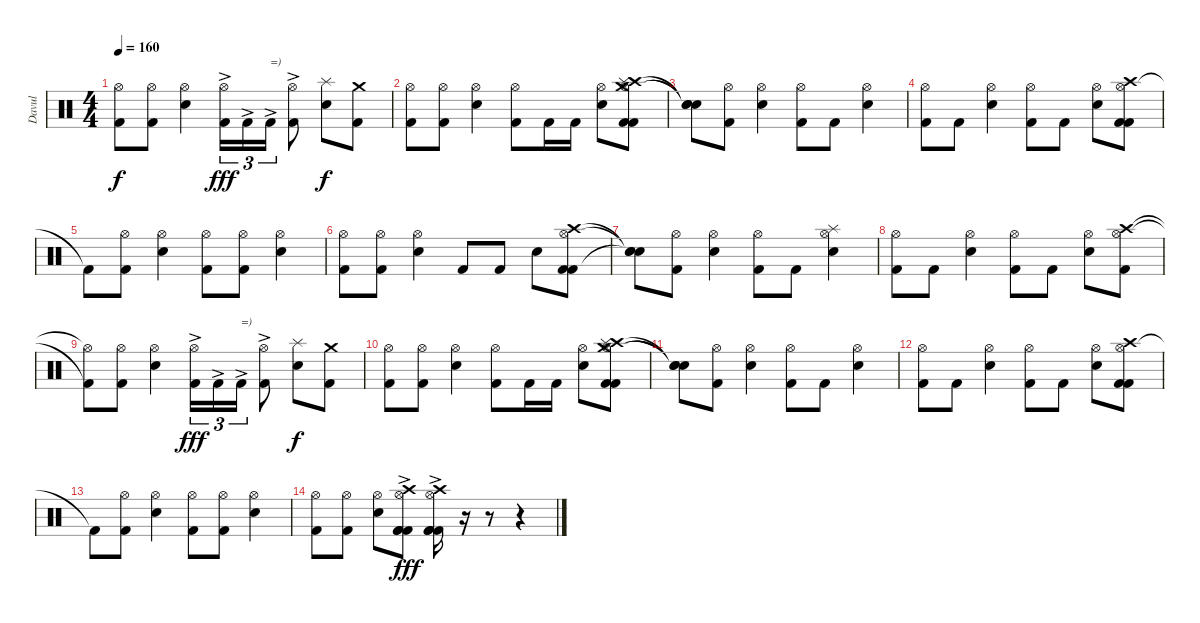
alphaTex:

\track ("Davul" "Davul") {instrument percussion}
\staff {score}
\articulation defaults
\ts (4 4)
\tempo 160
\clef neutral
\ks c
("Hi-Hat (open)"{t} "Kick (hit) 2"{t}).8{dy f} ("Hi-Hat (open)" "Kick (hit) 2").8 ("Hi-Hat (open)" "Electric Snare (hit)").4 ("Hi-Hat (open)" "Kick (hit) 2"{ac}).16{tu (3 2) dy fff} "Kick (hit) 2"{ac}.16{tu (3 2)} "Kick (hit) 2"{ac}.16{tu (3 2) txt "=)"} ("Hi-Hat (open)" "Kick (hit) 2"{ac}).8 ("Splash (hit)" "Electric Snare (hit)").8{dy f} ("Crash medium (hit)" "Kick (hit) 2").8 |
("Hi-Hat (open)" "Kick (hit) 2").8 ("Hi-Hat (open)" "Kick (hit) 2").8 ("Hi-Hat (open)" "Electric Snare (hit)").4 ("Hi-Hat (open)" "Kick (hit) 2").8 "Kick (hit) 2".16 "Kick (hit) 2".16 ("Hi-Hat (open)" "Electric Snare (hit)").8 ("Hi-Hat (open)" "Crash high (hit)" "Crash medium (hit)" "Splash (hit)" "Kick (hit) 2" "Kick (hit) 2").8 |
("Snare (hit)"{t} "Snare (hit)"{t} "Snare (hit)"{t}).8 ("Hi-Hat (open)" "Kick (hit) 2").8 ("Hi-Hat (open)" "Electric Snare (hit)").4 ("Hi-Hat (open)" "Kick (hit) 2").8 "Kick (hit) 2".8 ("Hi-Hat (open)" "Electric Snare (hit)").4 |
("Hi-Hat (open)" "Kick (hit) 2").8 "Kick (hit) 2".8 ("Hi-Hat (open)" "Electric Snare (hit)").4 ("Hi-Hat (open)" "Kick (hit) 2").8 "Kick (hit) 2".8 ("Hi-Hat (open)" "Electric Snare (hit)").8 ("Hi-Hat (open)" "Crash high (hit)" "Kick (hit) 2" "Kick (hit) 2").8 |
"Kick (hit) 2"{t}.8 ("Hi-Hat (open)" "Kick (hit) 2").8 ("Hi-Hat (open)" "Electric Snare (hit)").4 ("Hi-Hat (open)" "Kick (hit) 2").8 ("Hi-Hat (open)" "Kick (hit) 2").8 ("Hi-Hat (open)" "Electric Snare (hit)").4 |
("Hi-Hat (open)" "Kick (hit) 2").8 ("Hi-Hat (open)" "Kick (hit) 2").8 ("Hi-Hat (open)" "Electric Snare (hit)").4 "Kick (hit) 2".8 "Kick (hit) 2".8 "Electric Snare (hit)".8 ("Hi-Hat (open)" "Crash high (hit)" "Kick (hit) 2" "Kick (hit) 2").8 |
("Snare (hit)"{t} "Snare (hit)"{t} "Snare (hit)"{t}).8 ("Hi-Hat (open)" "Kick (hit) 2").8 ("Hi-Hat (open)" "Electric Snare (hit)").4 ("Hi-Hat (open)" "Kick (hit) 2").8 "Kick (hit) 2".8 ("Splash (hit)" "Hi-Hat (open)" "Electric Snare (hit)").4 |
("Hi-Hat (open)" "Kick (hit) 2").8 "Kick (hit) 2".8 ("Hi-Hat (open)" "Electric Snare (hit)").4 ("Hi-Hat (open)" "Kick (hit) 2").8 "Kick (hit) 2".8 ("Hi-Hat (open)" "Electric Snare (hit)").8 ("Crash high (hit)" "Hi-Hat (open)" "Kick (hit) 2").8 |
("Hi-Hat (open)"{t} "Kick (hit) 2"{t}).8 ("Hi-Hat (open)" "Kick (hit) 2").8 ("Hi-Hat (open)" "Electric Snare (hit)").4 ("Hi-Hat (open)" "Kick (hit) 2"{ac}).16{tu (3 2) dy fff} "Kick (hit) 2"{ac}.16{tu (3 2)} "Kick (hit) 2"{ac}.16{tu (3 2) txt "=)"} ("Hi-Hat (open)" "Kick (hit) 2"{ac}).8 ("Splash (hit)" "Electric Snare (hit)").8{dy f} ("Crash medium (hit)" "Kick (hit) 2").8 |
("Hi-Hat (open)" "Kick (hit) 2").8 ("Hi-Hat (open)" "Kick (hit) 2").8 ("Hi-Hat (open)" "Electric Snare (hit)").4 ("Hi-Hat (open)" "Kick (hit) 2").8 "Kick (hit) 2".16 "Kick (hit) 2".16 ("Hi-Hat (open)" "Electric Snare (hit)").8 ("Hi-Hat (open)" "Crash high (hit)" "Crash medium (hit)" "Splash (hit)" "Kick (hit) 2" "Kick (hit) 2").8 |
("Snare (hit)"{t} "Snare (hit)"{t} "Snare (hit)"{t}).8 ("Hi-Hat (open)" "Kick (hit) 2").8 ("Hi-Hat (open)" "Electric Snare (hit)").4 ("Hi-Hat (open)" "Kick (hit) 2").8 "Kick (hit) 2".8 ("Hi-Hat (open)" "Electric Snare (hit)").4 |
("Hi-Hat (open)" "Kick (hit) 2").8 "Kick (hit) 2".8 ("Hi-Hat (open)" "Electric Snare (hit)").4 ("Hi-Hat (open)" "Kick (hit) 2").8 "Kick (hit) 2".8 ("Hi-Hat (open)" "Electric Snare (hit)").8 ("Hi-Hat (open)" "Crash high (hit)" "Kick (hit) 2" "Kick (hit) 2").8 |
"Kick (hit) 2"{t}.8 ("Hi-Hat (open)" "Kick (hit) 2").8 ("Hi-Hat (open)" "Electric Snare (hit)").4 ("Hi-Hat (open)" "Kick (hit) 2").8 ("Hi-Hat (open)" "Kick (hit) 2").8 ("Hi-Hat (open)" "Electric Snare (hit)").4 |
("Hi-Hat (open)" "Kick (hit) 2").8 ("Hi-Hat (open)" "Kick (hit) 2").8 ("Hi-Hat (open)" "Electric Snare (hit)").8 ("Hi-Hat (open)" "Crash high (hit)" "Kick (hit) 2"{ac} "Kick (hit) 2"{ac} "Kick (hit) 2"{ac}).8{dy fff} ("Hi-Hat (open)" "Crash high (hit)" "Kick (hit) 2"{ac} "Kick (hit) 2"{ac} "Kick (hit) 2"{ac}).16 r.16 r.8 r.4
